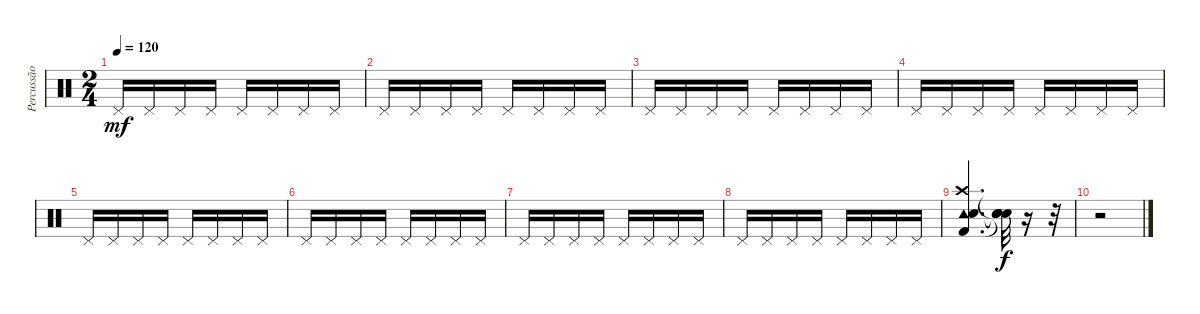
\track ("Percussão" "Percussão") {instrument percussion}
\staff {score}
\articulation defaults
\ts (2 4)
\tempo 120
\clef neutral
\ks c "Pedal Hi-Hat (hit)".16{dy mf} "Pedal Hi-Hat (hit)".16 "Pedal Hi-Hat (hit)".16 "Pedal Hi-Hat (hit)".16 "Pedal Hi-Hat (hit)".16 "Pedal Hi-Hat (hit)".16 "Pedal Hi-Hat (hit)".16 "Pedal Hi-Hat (hit)".16
|
"Pedal Hi-Hat (hit)".16 "Pedal Hi-Hat (hit)".16 "Pedal Hi-Hat (hit)".16 "Pedal Hi-Hat (hit)".16 "Pedal Hi-Hat (hit)".16 "Pedal Hi-Hat (hit)".16 "Pedal Hi-Hat (hit)".16 "Pedal Hi-Hat (hit)".16 |
"Pedal Hi-Hat (hit)".16 "Pedal Hi-Hat (hit)".16 "Pedal Hi-Hat (hit)".16 "Pedal Hi-Hat (hit)".16 "Pedal Hi-Hat (hit)".16 "Pedal Hi-Hat (hit)".16 "Pedal Hi-Hat (hit)".16 "Pedal Hi-Hat (hit)".16 |
"Pedal Hi-Hat (hit)".16 "Pedal Hi-Hat (hit)".16 "Pedal Hi-Hat (hit)".16 "Pedal Hi-Hat (hit)".16 "Pedal Hi-Hat (hit)".16 "Pedal Hi-Hat (hit)".16 "Pedal Hi-Hat (hit)".16 "Pedal Hi-Hat (hit)".16 |
"Pedal Hi-Hat (hit)".16 "Pedal Hi-Hat (hit)".16 "Pedal Hi-Hat (hit)".16 "Pedal Hi-Hat (hit)".16 "Pedal Hi-Hat (hit)".16 "Pedal Hi-Hat (hit)".16 "Pedal Hi-Hat (hit)".16 "Pedal Hi-Hat (hit)".16 |
"Pedal Hi-Hat (hit)".16 "Pedal Hi-Hat (hit)".16 "Pedal Hi-Hat (hit)".16 "Pedal Hi-Hat (hit)".16 "Pedal Hi-Hat (hit)".16 "Pedal Hi-Hat (hit)".16 "Pedal Hi-Hat (hit)".16 "Pedal Hi-Hat (hit)".16 |
"Pedal Hi-Hat (hit)".16 "Pedal Hi-Hat (hit)".16 "Pedal Hi-Hat (hit)".16 "Pedal Hi-Hat (hit)".16 "Pedal Hi-Hat (hit)".16 "Pedal Hi-Hat (hit)".16 "Pedal Hi-Hat (hit)".16 "Pedal Hi-Hat (hit)".16 |
"Pedal Hi-Hat (hit)".16 "Pedal Hi-Hat (hit)".16 "Pedal Hi-Hat (hit)".16 "Pedal Hi-Hat (hit)".16 "Pedal Hi-Hat (hit)".16 "Pedal Hi-Hat (hit)".16 "Pedal Hi-Hat (hit)".16 "Pedal Hi-Hat (hit)".16 |
("Kick (hit) 2" "Tambourine (hit)" "Crash high (hit)" "Snare (hit) 2").4{d} ("Snare (hit)"{t} "Snare (hit)"{t} "Snare (hit)"{t} "Snare (hit)"{t}).32{dy f} r.16 r.32 |
r.2
